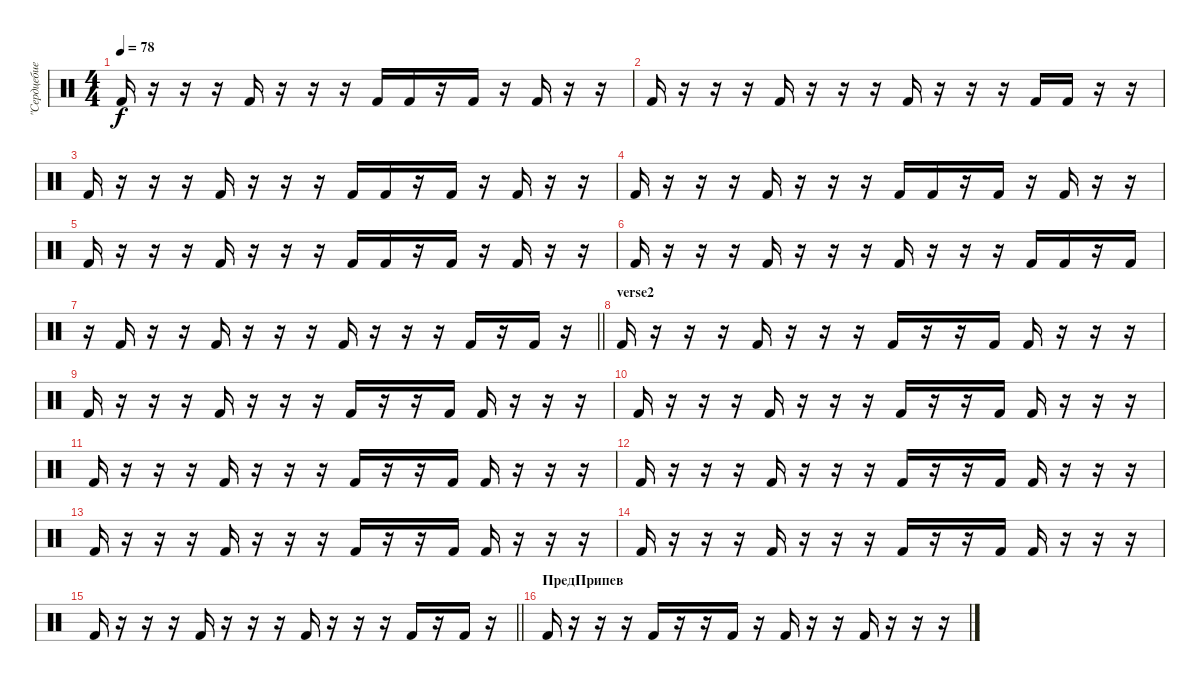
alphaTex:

\track ("\"Сердцебиение\" песни" "\"Сердцебие") {instrument percussion}
\staff {score}
\articulation defaults
\ts (4 4)
\tempo 78
\clef neutral
\ks c "Kick (hit) 2".16{dy f}
r.16 r.16 r.16 "Kick (hit) 2".16 r.16 r.16 r.16 "Kick (hit) 2".16 "Kick (hit) 2".16 r.16 "Kick (hit) 2".16 r.16 "Kick (hit) 2".16 r.16 r.16 |
"Kick (hit) 2".16 r.16 r.16 r.16 "Kick (hit) 2".16 r.16 r.16 r.16 "Kick (hit) 2".16 r.16 r.16 r.16 "Kick (hit) 2".16 "Kick (hit) 2".16 r.16 r.16 |
"Kick (hit) 2".16 r.16 r.16 r.16 "Kick (hit) 2".16 r.16 r.16 r.16 "Kick (hit) 2".16 "Kick (hit) 2".16 r.16 "Kick (hit) 2".16 r.16 "Kick (hit) 2".16 r.16 r.16 |
"Kick (hit) 2".16 r.16 r.16 r.16 "Kick (hit) 2".16 r.16 r.16 r.16 "Kick (hit) 2".16 "Kick (hit) 2".16 r.16 "Kick (hit) 2".16 r.16 "Kick (hit) 2".16 r.16 r.16 |
"Kick (hit) 2".16 r.16 r.16 r.16 "Kick (hit) 2".16 r.16 r.16 r.16 "Kick (hit) 2".16 "Kick (hit) 2".16 r.16 "Kick (hit) 2".16 r.16 "Kick (hit) 2".16 r.16 r.16 |
"Kick (hit) 2".16 r.16 r.16 r.16 "Kick (hit) 2".16 r.16 r.16 r.16 "Kick (hit) 2".16 r.16 r.16 r.16 "Kick (hit) 2".16 "Kick (hit) 2".16 r.16 "Kick (hit) 2".16 |
\barLineRight lightlight
r.16 "Kick (hit) 2".16 r.16 r.16 "Kick (hit) 2".16 r.16 r.16 r.16 "Kick (hit) 2".16 r.16 r.16 r.16 "Kick (hit) 2".16 r.16 "Kick (hit) 2".16 r.16 |
\section ("" "verse2")
"Kick (hit) 2".16 r.16 r.16 r.16 "Kick (hit) 2".16 r.16 r.16 r.16 "Kick (hit) 2".16 r.16 r.16 "Kick (hit) 2".16 "Kick (hit) 2".16 r.16 r.16 r.16 |
"Kick (hit) 2".16 r.16 r.16 r.16 "Kick (hit) 2".16 r.16 r.16 r.16 "Kick (hit) 2".16 r.16 r.16 "Kick (hit) 2".16 "Kick (hit) 2".16 r.16 r.16 r.16 |
"Kick (hit) 2".16 r.16 r.16 r.16 "Kick (hit) 2".16 r.16 r.16 r.16 "Kick (hit) 2".16 r.16 r.16 "Kick (hit) 2".16 "Kick (hit) 2".16 r.16 r.16 r.16 |
"Kick (hit) 2".16 r.16 r.16 r.16 "Kick (hit) 2".16 r.16 r.16 r.16 "Kick (hit) 2".16 r.16 r.16 "Kick (hit) 2".16 "Kick (hit) 2".16 r.16 r.16 r.16 |
"Kick (hit) 2".16 r.16 r.16 r.16 "Kick (hit) 2".16 r.16 r.16 r.16 "Kick (hit) 2".16 r.16 r.16 "Kick (hit) 2".16 "Kick (hit) 2".16 r.16 r.16 r.16 |
"Kick (hit) 2".16 r.16 r.16 r.16 "Kick (hit) 2".16 r.16 r.16 r.16 "Kick (hit) 2".16 r.16 r.16 "Kick (hit) 2".16 "Kick (hit) 2".16 r.16 r.16 r.16 |
"Kick (hit) 2".16 r.16 r.16 r.16 "Kick (hit) 2".16 r.16 r.16 r.16 "Kick (hit) 2".16 r.16 r.16 "Kick (hit) 2".16 "Kick (hit) 2".16 r.16 r.16 r.16 |
\barLineRight lightlight "Kick (hit) 2".16
r.16 r.16 r.16 "Kick (hit) 2".16 r.16 r.16 r.16 "Kick (hit) 2".16 r.16 r.16 r.16 "Kick (hit) 2".16 r.16 "Kick (hit) 2".16 r.16 |
\section ("" "ПредПрипев")
"Kick (hit) 2".16 r.16 r.16 r.16 "Kick (hit) 2".16 r.16 r.16 "Kick (hit) 2".16 r.16 "Kick (hit) 2".16 r.16 r.16 "Kick (hit) 2".16 r.16 r.16 r.16
